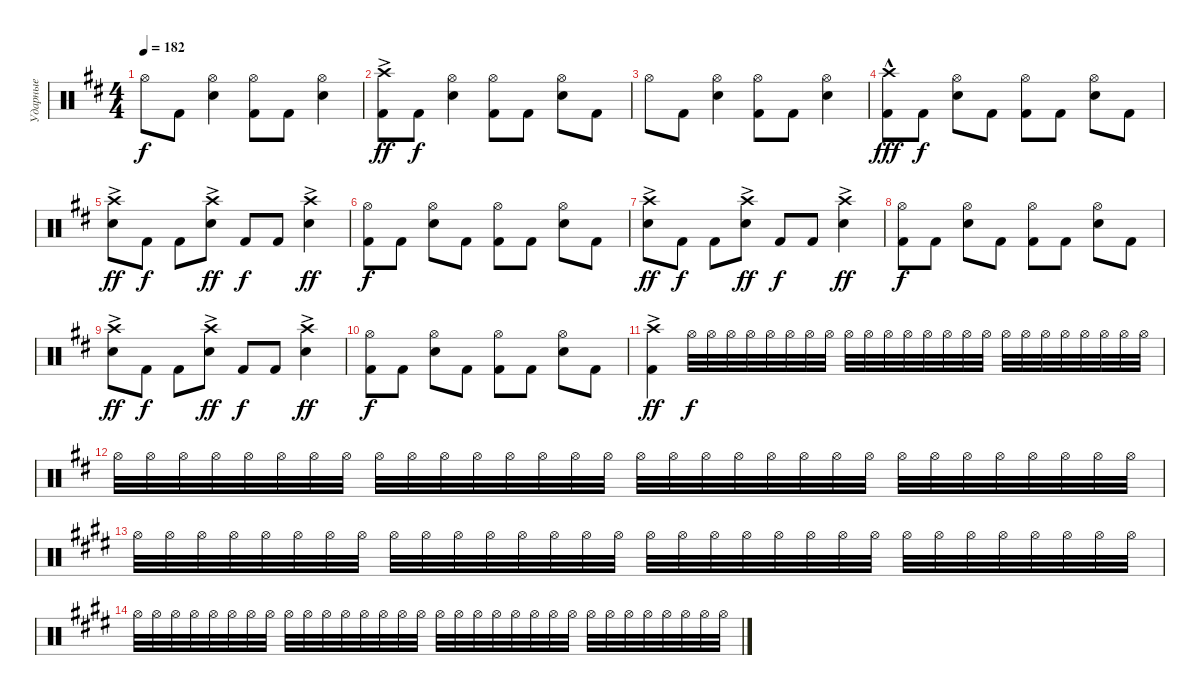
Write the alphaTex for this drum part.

\track ("Ударные" "Ударные") {instrument percussion}
\staff {score}
\articulation defaults
\ts (4 4)
\tempo 182
\clef neutral
\ks d "Hi-Hat (open)".8{dy f} "Kick (hit) 2".8
("Snare (hit) 2" "Hi-Hat (open)").4 ("Kick (hit) 2" "Hi-Hat (open)").8 "Kick (hit) 2".8 ("Snare (hit) 2" "Hi-Hat (open)").4 |
("Kick (hit) 2" "Crash high (hit)"{ac}).8{dy ff} "Kick (hit) 2".8{dy f} ("Snare (hit) 2" "Hi-Hat (open)").4 ("Kick (hit) 2" "Hi-Hat (open)").8 "Kick (hit) 2".8 ("Snare (hit) 2" "Hi-Hat (open)").8 "Kick (hit) 2".8 |
"Hi-Hat (open)".8 "Kick (hit) 2".8 ("Snare (hit) 2" "Hi-Hat (open)").4 ("Kick (hit) 2" "Hi-Hat (open)").8 "Kick (hit) 2".8 ("Snare (hit) 2" "Hi-Hat (open)").4 |
("Kick (hit) 2" "Crash high (hit)"{hac}).8{dy fff} "Kick (hit) 2".8{dy f} ("Snare (hit) 2" "Hi-Hat (open)").8 "Kick (hit) 2".8 ("Kick (hit) 2" "Hi-Hat (open)").8 "Kick (hit) 2".8 ("Snare (hit) 2" "Hi-Hat (open)").8 "Kick (hit) 2".8 |
("Snare (hit) 2" "Crash high (hit)"{ac}).8{dy ff} "Kick (hit) 2".8{dy f} "Kick (hit) 2".8 ("Snare (hit) 2" "Crash high (hit)"{ac}).8{dy ff} "Kick (hit) 2".8{dy f} "Kick (hit) 2".8 ("Snare (hit) 2" "Crash high (hit)"{ac}).4{dy ff} |
("Kick (hit) 2" "Hi-Hat (open)").8{dy f} "Kick (hit) 2".8 ("Snare (hit) 2" "Hi-Hat (open)").8 "Kick (hit) 2".8 ("Kick (hit) 2" "Hi-Hat (open)").8 "Kick (hit) 2".8 ("Snare (hit) 2" "Hi-Hat (open)").8 "Kick (hit) 2".8 |
("Snare (hit) 2" "Crash high (hit)"{ac}).8{dy ff} "Kick (hit) 2".8{dy f} "Kick (hit) 2".8 ("Snare (hit) 2" "Crash high (hit)"{ac}).8{dy ff} "Kick (hit) 2".8{dy f} "Kick (hit) 2".8 ("Snare (hit) 2" "Crash high (hit)"{ac}).4{dy ff} |
("Kick (hit) 2" "Hi-Hat (open)").8{dy f} "Kick (hit) 2".8 ("Snare (hit) 2" "Hi-Hat (open)").8 "Kick (hit) 2".8 ("Kick (hit) 2" "Hi-Hat (open)").8 "Kick (hit) 2".8 ("Snare (hit) 2" "Hi-Hat (open)").8 "Kick (hit) 2".8 |
("Snare (hit) 2" "Crash high (hit)"{ac}).8{dy ff} "Kick (hit) 2".8{dy f} "Kick (hit) 2".8 ("Snare (hit) 2" "Crash high (hit)"{ac}).8{dy ff} "Kick (hit) 2".8{dy f} "Kick (hit) 2".8 ("Snare (hit) 2" "Crash high (hit)"{ac}).4{dy ff} |
("Kick (hit) 2" "Hi-Hat (open)").8{dy f} "Kick (hit) 2".8 ("Snare (hit) 2" "Hi-Hat (open)").8 "Kick (hit) 2".8 ("Kick (hit) 2" "Hi-Hat (open)").8 "Kick (hit) 2".8 ("Snare (hit) 2" "Hi-Hat (open)").8 "Kick (hit) 2".8 |
("Kick (hit) 2" "Crash high (hit)"{ac}).4{dy ff} "Hi-Hat (open)".32{dy f} "Hi-Hat (open)".32 "Hi-Hat (open)".32 "Hi-Hat (open)".32 "Hi-Hat (open)".32 "Hi-Hat (open)".32 "Hi-Hat (open)".32 "Hi-Hat (open)".32 "Hi-Hat (open)".32 "Hi-Hat (open)".32 "Hi-Hat (open)".32 "Hi-Hat (open)".32 "Hi-Hat (open)".32 "Hi-Hat (open)".32 "Hi-Hat (open)".32 "Hi-Hat (open)".32 "Hi-Hat (open)".32 "Hi-Hat (open)".32 "Hi-Hat (open)".32 "Hi-Hat (open)".32 "Hi-Hat (open)".32 "Hi-Hat (open)".32 "Hi-Hat (open)".32 "Hi-Hat (open)".32 |
"Hi-Hat (open)".32 "Hi-Hat (open)".32 "Hi-Hat (open)".32 "Hi-Hat (open)".32 "Hi-Hat (open)".32 "Hi-Hat (open)".32 "Hi-Hat (open)".32 "Hi-Hat (open)".32 "Hi-Hat (open)".32 "Hi-Hat (open)".32 "Hi-Hat (open)".32 "Hi-Hat (open)".32 "Hi-Hat (open)".32 "Hi-Hat (open)".32 "Hi-Hat (open)".32 "Hi-Hat (open)".32 "Hi-Hat (open)".32 "Hi-Hat (open)".32 "Hi-Hat (open)".32 "Hi-Hat (open)".32 "Hi-Hat (open)".32 "Hi-Hat (open)".32 "Hi-Hat (open)".32 "Hi-Hat (open)".32 "Hi-Hat (open)".32 "Hi-Hat (open)".32 "Hi-Hat (open)".32 "Hi-Hat (open)".32 "Hi-Hat (open)".32 "Hi-Hat (open)".32 "Hi-Hat (open)".32 "Hi-Hat (open)".32 |
\ks e "Hi-Hat (open)".32 "Hi-Hat (open)".32 "Hi-Hat (open)".32 "Hi-Hat (open)".32 "Hi-Hat (open)".32 "Hi-Hat (open)".32 "Hi-Hat (open)".32 "Hi-Hat (open)".32 "Hi-Hat (open)".32 "Hi-Hat (open)".32 "Hi-Hat (open)".32 "Hi-Hat (open)".32 "Hi-Hat (open)".32 "Hi-Hat (open)".32 "Hi-Hat (open)".32 "Hi-Hat (open)".32 "Hi-Hat (open)".32 "Hi-Hat (open)".32 "Hi-Hat (open)".32 "Hi-Hat (open)".32 "Hi-Hat (open)".32 "Hi-Hat (open)".32 "Hi-Hat (open)".32 "Hi-Hat (open)".32 "Hi-Hat (open)".32 "Hi-Hat (open)".32 "Hi-Hat (open)".32 "Hi-Hat (open)".32 "Hi-Hat (open)".32 "Hi-Hat (open)".32 "Hi-Hat (open)".32 "Hi-Hat (open)".32
|
"Hi-Hat (open)".32 "Hi-Hat (open)".32 "Hi-Hat (open)".32 "Hi-Hat (open)".32 "Hi-Hat (open)".32 "Hi-Hat (open)".32 "Hi-Hat (open)".32 "Hi-Hat (open)".32 "Hi-Hat (open)".32 "Hi-Hat (open)".32 "Hi-Hat (open)".32 "Hi-Hat (open)".32 "Hi-Hat (open)".32 "Hi-Hat (open)".32 "Hi-Hat (open)".32 "Hi-Hat (open)".32 "Hi-Hat (open)".32 "Hi-Hat (open)".32 "Hi-Hat (open)".32 "Hi-Hat (open)".32 "Hi-Hat (open)".32 "Hi-Hat (open)".32 "Hi-Hat (open)".32 "Hi-Hat (open)".32 "Hi-Hat (open)".32 "Hi-Hat (open)".32 "Hi-Hat (open)".32 "Hi-Hat (open)".32 "Hi-Hat (open)".32 "Hi-Hat (open)".32 "Hi-Hat (open)".32 "Hi-Hat (open)".32
